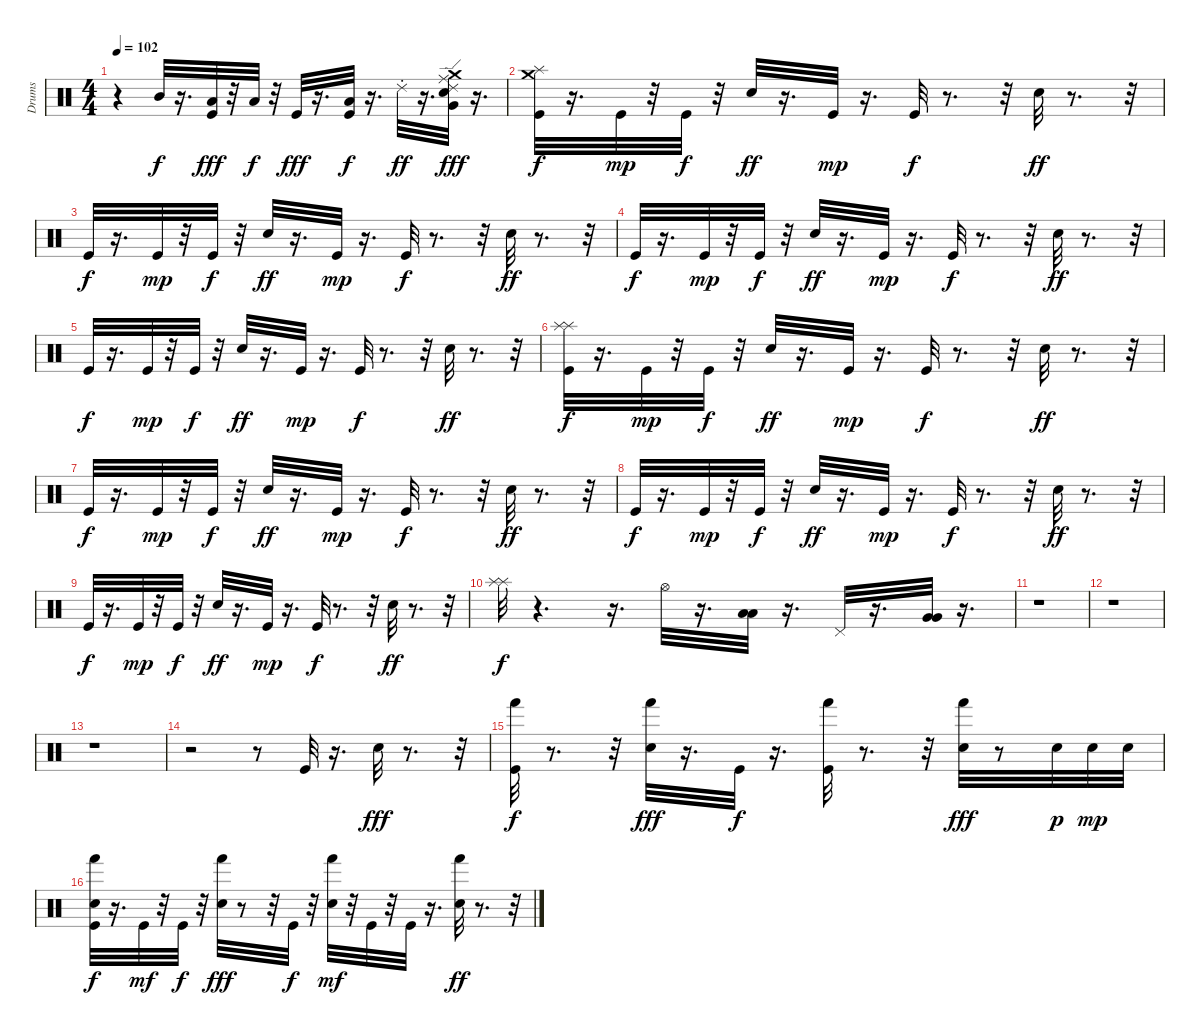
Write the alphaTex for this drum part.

\track ("Drums" "Drums") {instrument percussion}
\staff {score}
\articulation defaults
\ts (4 4)
\tempo 102
\clef neutral
\ks c
r.4{dy fff} "Mid Tom (hit)".32{dy f} r.16{d} ("Kick (hit)" "Low Tom (hit)").32{dy fff} r.32 "Low Tom (hit)".32{dy f} r.32 "Kick (hit)".32{dy fff} r.16{d} ("Kick (hit)" "Low Floor Tom (hit)").32{dy f} r.16{d} "Ride (choke) 2".32{dy ff} r.16{d} ("Ride (edge) 2" "Ride (middle)" "Crash medium (hit)" "Very Low Tom (hit)" "Electric Snare (hit)").32{dy fff} r.16{d} |
("Crash medium (hit)" "Kick (hit)" "Splash (hit)").32{dy f} r.16{d} "Kick (hit)".32{dy mp} r.32 "Kick (hit)".32{dy f} r.32 "Electric Snare (hit)".32{dy ff} r.16{d} "Kick (hit)".32{dy mp} r.16{d} "Kick (hit)".32{dy f} r.8{d} r.32 "Electric Snare (hit)".32{dy ff} r.8{d} r.32 |
"Kick (hit)".32{dy f} r.16{d} "Kick (hit)".32{dy mp} r.32 "Kick (hit)".32{dy f} r.32 "Electric Snare (hit)".32{dy ff} r.16{d} "Kick (hit)".32{dy mp} r.16{d} "Kick (hit)".32{dy f} r.8{d} r.32 "Electric Snare (hit)".32{dy ff} r.8{d} r.32 |
"Kick (hit)".32{dy f} r.16{d} "Kick (hit)".32{dy mp} r.32 "Kick (hit)".32{dy f} r.32 "Electric Snare (hit)".32{dy ff} r.16{d} "Kick (hit)".32{dy mp} r.16{d} "Kick (hit)".32{dy f} r.8{d} r.32 "Electric Snare (hit)".32{dy ff} r.8{d} r.32 |
"Kick (hit)".32{dy f} r.16{d} "Kick (hit)".32{dy mp} r.32 "Kick (hit)".32{dy f} r.32 "Electric Snare (hit)".32{dy ff} r.16{d} "Kick (hit)".32{dy mp} r.16{d} "Kick (hit)".32{dy f} r.8{d} r.32 "Electric Snare (hit)".32{dy ff} r.8{d} r.32 |
("Splash (hit)" "Splash (hit)" "Kick (hit)").32{dy f} r.16{d} "Kick (hit)".32{dy mp} r.32 "Kick (hit)".32{dy f} r.32 "Electric Snare (hit)".32{dy ff} r.16{d} "Kick (hit)".32{dy mp} r.16{d} "Kick (hit)".32{dy f} r.8{d} r.32 "Electric Snare (hit)".32{dy ff} r.8{d} r.32 |
"Kick (hit)".32{dy f} r.16{d} "Kick (hit)".32{dy mp} r.32 "Kick (hit)".32{dy f} r.32 "Electric Snare (hit)".32{dy ff} r.16{d} "Kick (hit)".32{dy mp} r.16{d} "Kick (hit)".32{dy f} r.8{d} r.32 "Electric Snare (hit)".32{dy ff} r.8{d} r.32 |
"Kick (hit)".32{dy f} r.16{d} "Kick (hit)".32{dy mp} r.32 "Kick (hit)".32{dy f} r.32 "Electric Snare (hit)".32{dy ff} r.16{d} "Kick (hit)".32{dy mp} r.16{d} "Kick (hit)".32{dy f} r.8{d} r.32 "Electric Snare (hit)".32{dy ff} r.8{d} r.32 |
"Kick (hit)".32{dy f} r.16{d} "Kick (hit)".32{dy mp} r.32 "Kick (hit)".32{dy f} r.32 "Electric Snare (hit)".32{dy ff} r.16{d} "Kick (hit)".32{dy mp} r.16{d} "Kick (hit)".32{dy f} r.8{d} r.32 "Electric Snare (hit)".32{dy ff} r.8{d} r.32 |
("Splash (hit)" "Splash (hit)").32{dy f} r.4{d} r.16{d} "Hi-Hat (open)".32 r.16{d} ("Low Tom (hit)" "Low Tom (hit)").32 r.16{d} "Pedal Hi-Hat (hit)".32 r.16{d} ("Very Low Tom (hit)" "Very Low Tom (hit)").32 r.16{d} |
r.1 |
r.1 |
r.1 |
r.2 r.8 "Kick (hit)".32 r.16{d} "Electric Snare (hit)".32{dy fff} r.8{d} r.32 |
("Hand (hit)" "Kick (hit)").32{dy f} r.8{d} r.32 ("Hand (hit)" "Electric Snare (hit)").32{dy fff} r.16{d} "Kick (hit)".32{dy f} r.16{d} ("Hand (hit)" "Kick (hit)").32 r.8{d} r.32 ("Hand (hit)" "Electric Snare (hit)").32{dy fff} r.8 "Electric Snare (hit)".32{dy p} "Electric Snare (hit)".32{dy mp} "Electric Snare (hit)".32 |
("Hand (hit)" "Kick (hit)" "Electric Snare (hit)").32{dy f} r.16{d} "Kick (hit)".32{dy mf} r.32 "Kick (hit)".32{dy f} r.32 ("Hand (hit)" "Electric Snare (hit)").32{dy fff} r.8 r.32 "Kick (hit)".32{dy f} r.32 ("Hand (hit)" "Electric Snare (hit)").32{dy mf} r.32 "Kick (hit)".32 r.32 "Kick (hit)".32 r.16{d} ("Hand (hit)" "Electric Snare (hit)").32{dy ff} r.8{d} r.32
